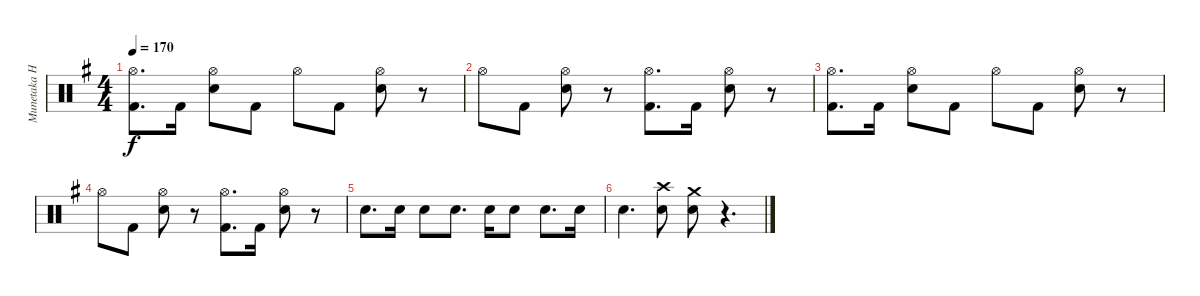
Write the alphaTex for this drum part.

\track ("Munetaka Higuchi" "Munetaka H") {instrument percussion}
\staff {score}
\articulation defaults
\ts (4 4)
\tempo 170
\clef neutral
\ks eminor
("Hi-Hat (open)" "Kick (hit) 2").8{d dy f} "Kick (hit) 2".16 ("Hi-Hat (open)" "Electric Snare (hit)").8 "Kick (hit) 2".8 "Hi-Hat (open)".8 "Kick (hit) 2".8 ("Hi-Hat (open)" "Electric Snare (hit)").8 r.8 |
"Hi-Hat (open)".8 "Kick (hit) 2".8 ("Hi-Hat (open)" "Electric Snare (hit)").8 r.8 ("Hi-Hat (open)" "Kick (hit) 2").8{d} "Kick (hit) 2".16 ("Hi-Hat (open)" "Electric Snare (hit)").8 r.8 |
("Hi-Hat (open)" "Kick (hit) 2").8{d} "Kick (hit) 2".16 ("Hi-Hat (open)" "Electric Snare (hit)").8 "Kick (hit) 2".8 "Hi-Hat (open)".8 "Kick (hit) 2".8 ("Hi-Hat (open)" "Electric Snare (hit)").8 r.8 |
"Hi-Hat (open)".8 "Kick (hit) 2".8 ("Hi-Hat (open)" "Electric Snare (hit)").8 r.8 ("Hi-Hat (open)" "Kick (hit) 2").8{d} "Kick (hit) 2".16 ("Hi-Hat (open)" "Electric Snare (hit)").8 r.8 |
"Electric Snare (hit)".8{d} "Electric Snare (hit)".16 "Electric Snare (hit)".8 "Electric Snare (hit)".8{d} "Electric Snare (hit)".16 "Electric Snare (hit)".8 "Electric Snare (hit)".8{d} "Electric Snare (hit)".16 |
"Electric Snare (hit)".4{d} ("Crash high (hit)" "Electric Snare (hit)").8 ("Crash medium (hit)" "Electric Snare (hit)").8 r.4{d}
